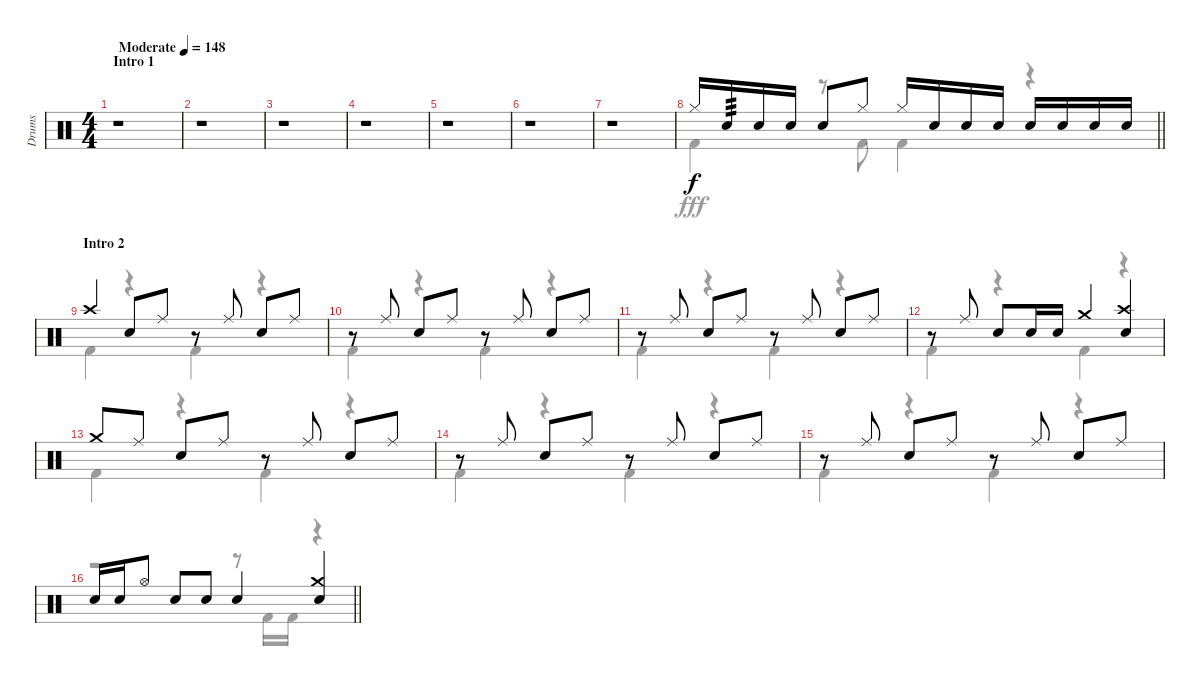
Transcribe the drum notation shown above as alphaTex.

\track ("Drums" "Drums") {instrument percussion}
\staff {score}
\articulation defaults
\voice
\ts (4 4)
\section ("" "Intro 1")
\tempo (148 "Moderate")
\clef neutral
\ks c
r.1{dy f} |
r.1 |
r.1 |
r.1 |
r.1 |
r.1 |
r.1 |
\barLineRight lightlight "Hi-Hat (closed)".16 "Snare (hit) 2".16{tp 3} "Snare (hit) 2".16 "Snare (hit) 2".16 "Snare (hit) 2".8 "Hi-Hat (closed)".8 "Hi-Hat (closed)".16 "Snare (hit) 2".16 "Snare (hit) 2".16 "Snare (hit) 2".16 "Snare (hit) 2".16 "Snare (hit) 2".16 "Snare (hit) 2".16 "Snare (hit) 2".16
|
\section ("" "Intro 2")
"Crash high (hit)".4 "Snare (hit) 2".8 "Ride (middle)".8 r.8 "Ride (middle)".8 "Snare (hit) 2".8 "Ride (middle)".8 |
r.8 "Ride (middle)".8 "Snare (hit) 2".8 "Ride (middle)".8 r.8 "Ride (middle)".8 "Snare (hit) 2".8 "Ride (middle)".8 |
r.8 "Ride (middle)".8 "Snare (hit) 2".8 "Ride (middle)".8 r.8 "Ride (middle)".8 "Snare (hit) 2".8 "Ride (middle)".8 |
r.8 "Ride (middle)".8 "Snare (hit) 2".8 "Snare (hit) 2".16 "Snare (hit) 2".16 "Crash medium (hit)".4 ("Crash high (hit)" "Snare (hit) 2").4 |
"Crash medium (hit)".8 "Ride (middle)".8 "Snare (hit) 2".8 "Ride (middle)".8 r.8 "Ride (middle)".8 "Snare (hit) 2".8 "Ride (middle)".8 |
r.8 "Ride (middle)".8 "Snare (hit) 2".8 "Ride (middle)".8 r.8 "Ride (middle)".8 "Snare (hit) 2".8 "Ride (middle)".8 |
r.8 "Ride (middle)".8 "Snare (hit) 2".8 "Ride (middle)".8 r.8 "Ride (middle)".8 "Snare (hit) 2".8 "Ride (middle)".8 |
\barLineRight lightlight "Snare (hit) 2".16 "Snare (hit) 2".16 "Hi-Hat (open)".8 "Snare (hit) 2".8 "Snare (hit) 2".8 "Snare (hit) 2".4
("Crash medium (hit)" "Snare (hit) 2").4
\voice
\clef neutral
\ottava regular
\simile none
\ks c
r.1{dy fff} |
r.1 |
r.1 |
r.1 |
r.1 |
r.1 |
r.1 |
\barLineRight lightlight "Kick (hit) 2".4
r.8 "Kick (hit) 2".8 "Kick (hit) 2".4 r.4 |
"Kick (hit) 2".4 r.4 "Kick (hit) 2".4 r.4 |
"Kick (hit) 2".4 r.4 "Kick (hit) 2".4 r.4 |
"Kick (hit) 2".4 r.4 "Kick (hit) 2".4 r.4 |
"Kick (hit) 2".4 r.4 "Kick (hit) 2".4 r.4 |
"Kick (hit) 2".4 r.4 "Kick (hit) 2".4 r.4 |
"Kick (hit) 2".4 r.4 "Kick (hit) 2".4 r.4 |
"Kick (hit) 2".4 r.4 "Kick (hit) 2".4 r.4 |
\barLineRight lightlight
r.2 r.8 "Kick (hit) 2".16 "Kick (hit) 2".16 r.4
